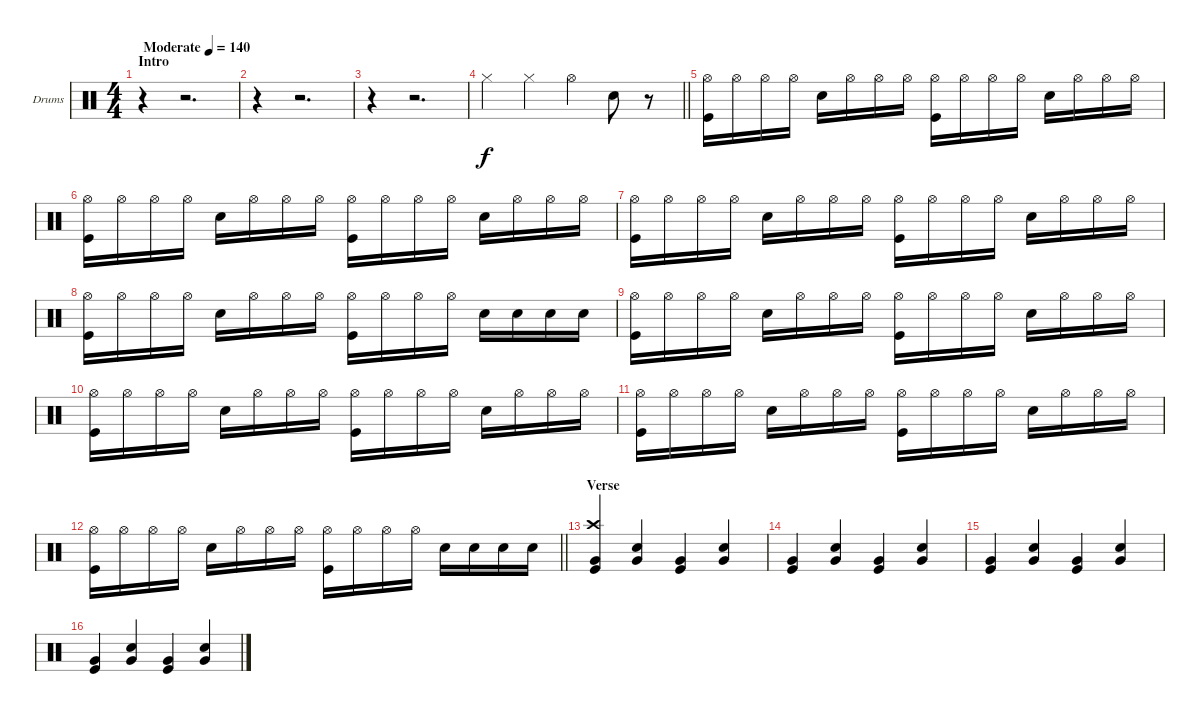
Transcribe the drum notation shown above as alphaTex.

\bracketExtendMode groupsimilarinstruments
\firstSystemTrackNameOrientation horizontal
\otherSystemsTrackNameOrientation horizontal
\track ("Drumkit" "Drums") {instrument percussion}
\staff {score}
\articulation defaults
\ts (4 4)
\beaming (8 2 2 2 2)
\section ("" "Intro")
\tempo (140 "Moderate")
\clef neutral
\ks c
r.4{dy f} r.2{d} |
r.4 r.2{d} |
r.4 r.2{d} |
\barLineRight lightlight "Hi-Hat (closed)".4 "Hi-Hat (closed)".4 "Hi-Hat (open)".4 "Snare (hit) 2".8
r.8 |
("Hi-Hat (open)" "Kick (hit)").16 "Hi-Hat (open)".16 "Hi-Hat (open)".16 "Hi-Hat (open)".16 "Snare (hit) 2".16 "Hi-Hat (open)".16 "Hi-Hat (open)".16 "Hi-Hat (open)".16 ("Hi-Hat (open)" "Kick (hit)").16 "Hi-Hat (open)".16 "Hi-Hat (open)".16 "Hi-Hat (open)".16 "Snare (hit) 2".16 "Hi-Hat (open)".16 "Hi-Hat (open)".16 "Hi-Hat (open)".16 |
("Hi-Hat (open)" "Kick (hit)").16 "Hi-Hat (open)".16 "Hi-Hat (open)".16 "Hi-Hat (open)".16 "Snare (hit) 2".16 "Hi-Hat (open)".16 "Hi-Hat (open)".16 "Hi-Hat (open)".16 ("Hi-Hat (open)" "Kick (hit)").16 "Hi-Hat (open)".16 "Hi-Hat (open)".16 "Hi-Hat (open)".16 "Snare (hit) 2".16 "Hi-Hat (open)".16 "Hi-Hat (open)".16 "Hi-Hat (open)".16 |
("Hi-Hat (open)" "Kick (hit)").16 "Hi-Hat (open)".16 "Hi-Hat (open)".16 "Hi-Hat (open)".16 "Snare (hit) 2".16 "Hi-Hat (open)".16 "Hi-Hat (open)".16 "Hi-Hat (open)".16 ("Hi-Hat (open)" "Kick (hit)").16 "Hi-Hat (open)".16 "Hi-Hat (open)".16 "Hi-Hat (open)".16 "Snare (hit) 2".16 "Hi-Hat (open)".16 "Hi-Hat (open)".16 "Hi-Hat (open)".16 |
("Hi-Hat (open)" "Kick (hit)").16 "Hi-Hat (open)".16 "Hi-Hat (open)".16 "Hi-Hat (open)".16 "Snare (hit) 2".16 "Hi-Hat (open)".16 "Hi-Hat (open)".16 "Hi-Hat (open)".16 ("Hi-Hat (open)" "Kick (hit)").16 "Hi-Hat (open)".16 "Hi-Hat (open)".16 "Hi-Hat (open)".16 "Snare (hit) 2".16 "Snare (hit) 2".16 "Snare (hit) 2".16 "Snare (hit) 2".16 |
("Hi-Hat (open)" "Kick (hit)").16 "Hi-Hat (open)".16 "Hi-Hat (open)".16 "Hi-Hat (open)".16 "Snare (hit) 2".16 "Hi-Hat (open)".16 "Hi-Hat (open)".16 "Hi-Hat (open)".16 ("Hi-Hat (open)" "Kick (hit)").16 "Hi-Hat (open)".16 "Hi-Hat (open)".16 "Hi-Hat (open)".16 "Snare (hit) 2".16 "Hi-Hat (open)".16 "Hi-Hat (open)".16 "Hi-Hat (open)".16 |
("Hi-Hat (open)" "Kick (hit)").16 "Hi-Hat (open)".16 "Hi-Hat (open)".16 "Hi-Hat (open)".16 "Snare (hit) 2".16 "Hi-Hat (open)".16 "Hi-Hat (open)".16 "Hi-Hat (open)".16 ("Hi-Hat (open)" "Kick (hit)").16 "Hi-Hat (open)".16 "Hi-Hat (open)".16 "Hi-Hat (open)".16 "Snare (hit) 2".16 "Hi-Hat (open)".16 "Hi-Hat (open)".16 "Hi-Hat (open)".16 |
("Hi-Hat (open)" "Kick (hit)").16 "Hi-Hat (open)".16 "Hi-Hat (open)".16 "Hi-Hat (open)".16 "Snare (hit) 2".16 "Hi-Hat (open)".16 "Hi-Hat (open)".16 "Hi-Hat (open)".16 ("Hi-Hat (open)" "Kick (hit)").16 "Hi-Hat (open)".16 "Hi-Hat (open)".16 "Hi-Hat (open)".16 "Snare (hit) 2".16 "Hi-Hat (open)".16 "Hi-Hat (open)".16 "Hi-Hat (open)".16 |
\barLineRight lightlight
("Hi-Hat (open)" "Kick (hit)").16 "Hi-Hat (open)".16 "Hi-Hat (open)".16 "Hi-Hat (open)".16 "Snare (hit) 2".16 "Hi-Hat (open)".16 "Hi-Hat (open)".16 "Hi-Hat (open)".16 ("Hi-Hat (open)" "Kick (hit)").16 "Hi-Hat (open)".16 "Hi-Hat (open)".16 "Hi-Hat (open)".16 "Snare (hit) 2".16 "Snare (hit) 2".16 "Snare (hit) 2".16 "Snare (hit) 2".16 |
\section ("" "Verse")
("Crash high (hit)" "Very Low Tom (hit)" "Kick (hit)").4 ("Very Low Tom (hit)" "Snare (hit) 2").4 ("Very Low Tom (hit)" "Kick (hit)").4 ("Very Low Tom (hit)" "Snare (hit) 2").4 |
("Very Low Tom (hit)" "Kick (hit)").4 ("Very Low Tom (hit)" "Snare (hit) 2").4 ("Very Low Tom (hit)" "Kick (hit)").4 ("Very Low Tom (hit)" "Snare (hit) 2").4 |
("Very Low Tom (hit)" "Kick (hit)").4 ("Very Low Tom (hit)" "Snare (hit) 2").4 ("Very Low Tom (hit)" "Kick (hit)").4 ("Very Low Tom (hit)" "Snare (hit) 2").4 |
("Very Low Tom (hit)" "Kick (hit)").4 ("Very Low Tom (hit)" "Snare (hit) 2").4 ("Very Low Tom (hit)" "Kick (hit)").4 ("Very Low Tom (hit)" "Snare (hit) 2").4
